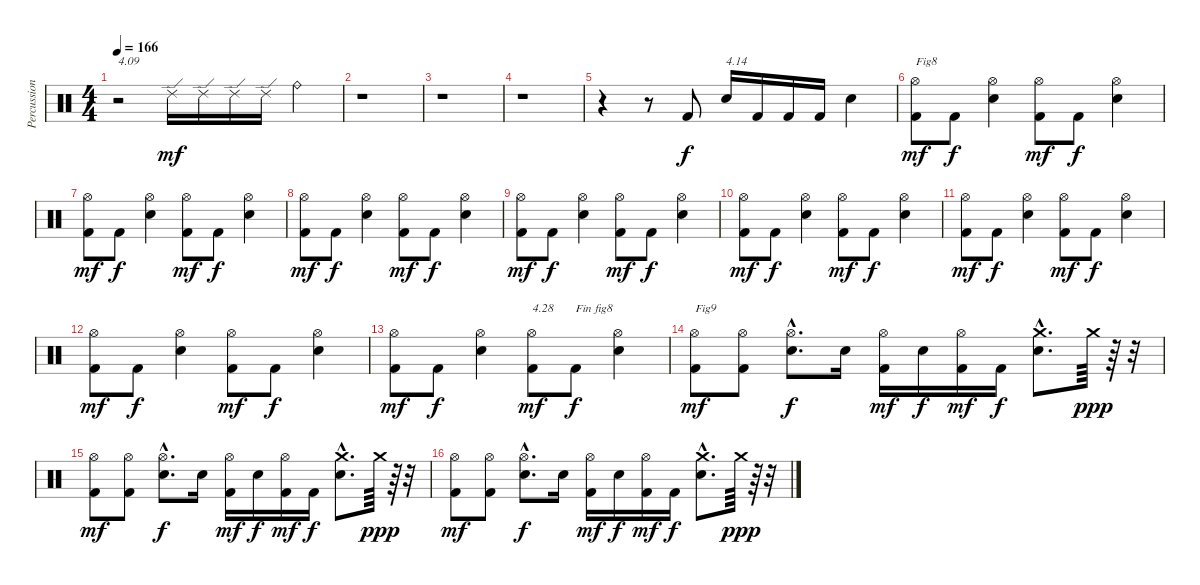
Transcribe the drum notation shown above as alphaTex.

\track ("Percussions" "Percussion") {instrument percussion}
\staff {score}
\articulation defaults
\ts (4 4)
\tempo 166
\clef neutral
\ks c
r.2{txt "4.09" dy f} "Ride (edge) 2".16{dy mf} "Ride (edge) 2".16 "Ride (edge) 2".16 "Ride (edge) 2".16 "Ride (bell)".4 |
r.1 |
r.1 |
r.1 |
r.4 r.8 "Kick (hit) 2".8{dy f} "Electric Snare (hit)".16{txt "4.14"} "Kick (hit) 2".16 "Kick (hit) 2".16 "Kick (hit) 2".16 "Electric Snare (hit)".4 |
("Kick (hit) 2" "Hi-Hat (open)").8{txt "Fig8" dy mf} "Kick (hit) 2".8{dy f} ("Electric Snare (hit)" "Hi-Hat (open)").4 ("Kick (hit) 2" "Hi-Hat (open)").8{dy mf} "Kick (hit) 2".8{dy f} ("Electric Snare (hit)" "Hi-Hat (open)").4 |
("Kick (hit) 2" "Hi-Hat (open)").8{dy mf} "Kick (hit) 2".8{dy f} ("Electric Snare (hit)" "Hi-Hat (open)").4 ("Kick (hit) 2" "Hi-Hat (open)").8{dy mf} "Kick (hit) 2".8{dy f} ("Electric Snare (hit)" "Hi-Hat (open)").4 |
("Kick (hit) 2" "Hi-Hat (open)").8{dy mf} "Kick (hit) 2".8{dy f} ("Electric Snare (hit)" "Hi-Hat (open)").4 ("Kick (hit) 2" "Hi-Hat (open)").8{dy mf} "Kick (hit) 2".8{dy f} ("Electric Snare (hit)" "Hi-Hat (open)").4 |
("Kick (hit) 2" "Hi-Hat (open)").8{dy mf} "Kick (hit) 2".8{dy f} ("Electric Snare (hit)" "Hi-Hat (open)").4 ("Kick (hit) 2" "Hi-Hat (open)").8{dy mf} "Kick (hit) 2".8{dy f} ("Electric Snare (hit)" "Hi-Hat (open)").4 |
("Kick (hit) 2" "Hi-Hat (open)").8{dy mf} "Kick (hit) 2".8{dy f} ("Electric Snare (hit)" "Hi-Hat (open)").4 ("Kick (hit) 2" "Hi-Hat (open)").8{dy mf} "Kick (hit) 2".8{dy f} ("Electric Snare (hit)" "Hi-Hat (open)").4 |
("Kick (hit) 2" "Hi-Hat (open)").8{dy mf} "Kick (hit) 2".8{dy f} ("Electric Snare (hit)" "Hi-Hat (open)").4 ("Kick (hit) 2" "Hi-Hat (open)").8{dy mf} "Kick (hit) 2".8{dy f} ("Electric Snare (hit)" "Hi-Hat (open)").4 |
("Kick (hit) 2" "Hi-Hat (open)").8{dy mf} "Kick (hit) 2".8{dy f} ("Electric Snare (hit)" "Hi-Hat (open)").4 ("Kick (hit) 2" "Hi-Hat (open)").8{dy mf} "Kick (hit) 2".8{dy f} ("Electric Snare (hit)" "Hi-Hat (open)").4 |
("Kick (hit) 2" "Hi-Hat (open)").8{dy mf} "Kick (hit) 2".8{dy f} ("Electric Snare (hit)" "Hi-Hat (open)").4 ("Kick (hit) 2" "Hi-Hat (open)").8{txt "4.28" dy mf} "Kick (hit) 2".8{txt "Fin fig8" dy f} ("Electric Snare (hit)" "Hi-Hat (open)").4 |
("Kick (hit) 2" "Hi-Hat (open)").8{txt "Fig9" dy mf} ("Kick (hit) 2" "Hi-Hat (open)").8 ("Electric Snare (hit)"{hac} "Hi-Hat (open)"{hac}).8{d dy f} "Electric Snare (hit)".16 ("Kick (hit) 2" "Hi-Hat (open)").16{dy mf} "Electric Snare (hit)".16{dy f} ("Kick (hit) 2" "Hi-Hat (open)").16{dy mf} "Kick (hit) 2".16{dy f} ("Electric Snare (hit)"{hac} "Crash medium (hit)"{hac}).8{d} "Crash medium (hit)".64{dy ppp} r.64 r.32 |
("Kick (hit) 2" "Hi-Hat (open)").8{dy mf} ("Kick (hit) 2" "Hi-Hat (open)").8 ("Electric Snare (hit)"{hac} "Hi-Hat (open)"{hac}).8{d dy f} "Electric Snare (hit)".16 ("Kick (hit) 2" "Hi-Hat (open)").16{dy mf} "Electric Snare (hit)".16{dy f} ("Kick (hit) 2" "Hi-Hat (open)").16{dy mf} "Kick (hit) 2".16{dy f} ("Electric Snare (hit)"{hac} "Crash medium (hit)"{hac}).8{d} "Crash medium (hit)".64{dy ppp} r.64 r.32 |
("Kick (hit) 2" "Hi-Hat (open)").8{dy mf} ("Kick (hit) 2" "Hi-Hat (open)").8 ("Electric Snare (hit)"{hac} "Hi-Hat (open)"{hac}).8{d dy f} "Electric Snare (hit)".16 ("Kick (hit) 2" "Hi-Hat (open)").16{dy mf} "Electric Snare (hit)".16{dy f} ("Kick (hit) 2" "Hi-Hat (open)").16{dy mf} "Kick (hit) 2".16{dy f} ("Electric Snare (hit)"{hac} "Crash medium (hit)"{hac}).8{d} "Crash medium (hit)".64{dy ppp} r.64 r.32
